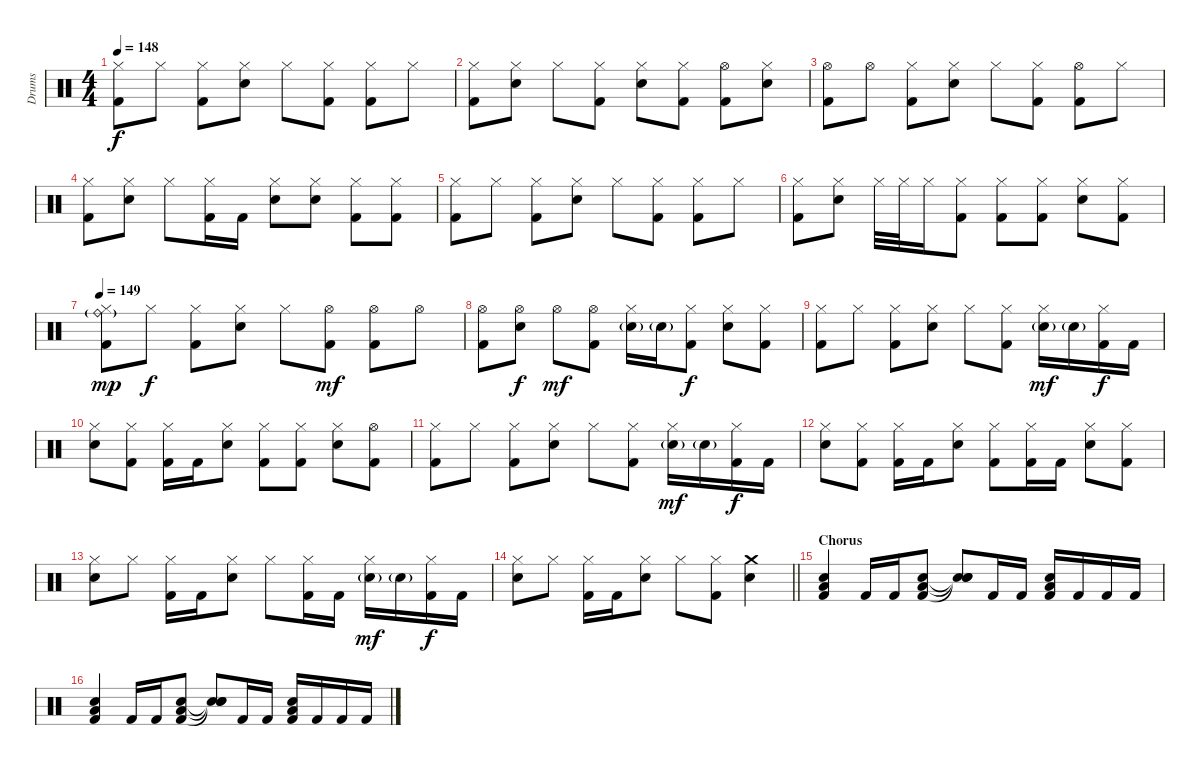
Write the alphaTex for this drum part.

\track ("Drums" "Drums") {instrument percussion}
\staff {score}
\articulation defaults
\ts (4 4)
\tempo 148
\clef neutral
\ks c
("Hi-Hat (closed)" "Kick (hit) 2").8{dy f} "Hi-Hat (closed)".8 ("Hi-Hat (closed)" "Kick (hit) 2").8 ("Hi-Hat (closed)" "Snare (hit) 2").8 "Hi-Hat (closed)".8 ("Hi-Hat (closed)" "Kick (hit) 2").8 ("Hi-Hat (closed)" "Kick (hit) 2").8 "Hi-Hat (closed)".8 |
("Hi-Hat (closed)" "Kick (hit) 2").8 ("Hi-Hat (closed)" "Snare (hit) 2").8 "Hi-Hat (closed)".8 ("Hi-Hat (closed)" "Kick (hit) 2").8 ("Hi-Hat (closed)" "Snare (hit) 2").8 ("Hi-Hat (closed)" "Kick (hit) 2").8 ("Hi-Hat (open)" "Kick (hit) 2").8 ("Hi-Hat (closed)" "Snare (hit) 2").8 |
("Hi-Hat (open)" "Kick (hit) 2").8 "Hi-Hat (open)".8 ("Hi-Hat (closed)" "Kick (hit) 2").8 ("Hi-Hat (closed)" "Snare (hit) 2").8 "Hi-Hat (closed)".8 ("Hi-Hat (closed)" "Kick (hit) 2").8 ("Hi-Hat (open)" "Kick (hit) 2").8 "Hi-Hat (closed)".8 |
("Hi-Hat (closed)" "Kick (hit) 2").8 ("Hi-Hat (closed)" "Snare (hit) 2").8 "Hi-Hat (closed)".8 ("Hi-Hat (closed)" "Kick (hit) 2").16 "Kick (hit) 2".16 ("Hi-Hat (closed)" "Snare (hit) 2").8 ("Hi-Hat (closed)" "Snare (hit) 2").8 ("Hi-Hat (closed)" "Kick (hit) 2").8 ("Hi-Hat (closed)" "Kick (hit) 2").8 |
("Hi-Hat (closed)" "Kick (hit) 2").8 "Hi-Hat (closed)".8 ("Hi-Hat (closed)" "Kick (hit) 2").8 ("Hi-Hat (closed)" "Snare (hit) 2").8 "Hi-Hat (closed)".8 ("Hi-Hat (closed)" "Kick (hit) 2").8 ("Hi-Hat (closed)" "Kick (hit) 2").8 "Hi-Hat (closed)".8 |
("Hi-Hat (closed)" "Kick (hit) 2").8 ("Hi-Hat (closed)" "Snare (hit) 2").8 "Hi-Hat (closed)".32 "Hi-Hat (closed)".32 "Hi-Hat (closed)".16 ("Hi-Hat (closed)" "Kick (hit) 2").8 ("Hi-Hat (closed)" "Kick (hit) 2").8 ("Hi-Hat (closed)" "Kick (hit) 2").8 ("Hi-Hat (closed)" "Snare (hit) 2").8 ("Hi-Hat (closed)" "Kick (hit) 2").8 |
\tempo 149
("Ride (bell)"{g} "Hi-Hat (closed)" "Kick (hit) 2").8{dy mp} "Hi-Hat (closed)".8{dy f} ("Hi-Hat (closed)" "Kick (hit) 2").8 ("Hi-Hat (closed)" "Snare (hit) 2").8 "Hi-Hat (closed)".8 ("Hi-Hat (open)" "Kick (hit) 2").8{dy mf} ("Hi-Hat (open)" "Kick (hit) 2").8 "Hi-Hat (open)".8 |
("Hi-Hat (open)" "Kick (hit) 2").8 ("Hi-Hat (open)" "Snare (hit) 2").8{dy f} "Hi-Hat (open)".8{dy mf} ("Hi-Hat (open)" "Kick (hit) 2").8 ("Hi-Hat (closed)" "Snare (hit) 2"{g}).16 "Snare (hit) 2"{g}.16 ("Hi-Hat (closed)" "Kick (hit) 2").8{dy f} ("Hi-Hat (closed)" "Snare (hit) 2").8 ("Hi-Hat (closed)" "Kick (hit) 2").8 |
("Hi-Hat (closed)" "Kick (hit) 2").8 "Hi-Hat (closed)".8 ("Hi-Hat (closed)" "Kick (hit) 2").8 ("Hi-Hat (closed)" "Snare (hit) 2").8 "Hi-Hat (closed)".8 ("Hi-Hat (closed)" "Kick (hit) 2").8 ("Hi-Hat (closed)" "Snare (hit) 2"{g}).16{dy mf} "Snare (hit) 2"{g}.16 ("Hi-Hat (closed)" "Kick (hit) 2").16{dy f} "Kick (hit) 2".16 |
("Hi-Hat (closed)" "Snare (hit) 2").8 ("Hi-Hat (closed)" "Kick (hit) 2").8 ("Hi-Hat (closed)" "Kick (hit) 2").16 "Kick (hit) 2".16 ("Hi-Hat (closed)" "Snare (hit) 2").8 ("Hi-Hat (closed)" "Kick (hit) 2").8 ("Hi-Hat (closed)" "Kick (hit) 2").8 ("Hi-Hat (closed)" "Snare (hit) 2").8 ("Hi-Hat (open)" "Kick (hit) 2").8 |
("Hi-Hat (closed)" "Kick (hit) 2").8 "Hi-Hat (closed)".8 ("Hi-Hat (closed)" "Kick (hit) 2").8 ("Hi-Hat (closed)" "Snare (hit) 2").8 "Hi-Hat (closed)".8 ("Hi-Hat (closed)" "Kick (hit) 2").8 ("Hi-Hat (closed)" "Snare (hit) 2"{g}).16{dy mf} "Snare (hit) 2"{g}.16 ("Hi-Hat (closed)" "Kick (hit) 2").16{dy f} "Kick (hit) 2".16 |
("Hi-Hat (closed)" "Snare (hit) 2").8 ("Hi-Hat (closed)" "Kick (hit) 2").8 ("Hi-Hat (closed)" "Kick (hit) 2").16 "Kick (hit) 2".16 ("Hi-Hat (closed)" "Snare (hit) 2").8 ("Hi-Hat (closed)" "Kick (hit) 2").8 ("Hi-Hat (closed)" "Kick (hit) 2").16 "Kick (hit) 2".16 ("Hi-Hat (closed)" "Snare (hit) 2").8 ("Hi-Hat (closed)" "Kick (hit) 2").8 |
("Hi-Hat (closed)" "Snare (hit) 2").8 "Hi-Hat (closed)".8 ("Hi-Hat (closed)" "Kick (hit) 2").16 "Kick (hit) 2".16 ("Hi-Hat (closed)" "Snare (hit) 2").8 "Hi-Hat (closed)".8 ("Hi-Hat (closed)" "Kick (hit) 2").16 "Kick (hit) 2".16 ("Hi-Hat (closed)" "Snare (hit) 2"{g}).16{dy mf} "Snare (hit) 2"{g}.16 ("Hi-Hat (closed)" "Kick (hit) 2").16{dy f} "Kick (hit) 2".16 |
\barLineRight lightlight
("Hi-Hat (closed)" "Snare (hit) 2").8 "Hi-Hat (closed)".8 ("Hi-Hat (closed)" "Kick (hit) 2").16 "Kick (hit) 2".16 ("Hi-Hat (closed)" "Snare (hit) 2").8 "Hi-Hat (closed)".8 ("Hi-Hat (closed)" "Kick (hit) 2").8 ("Crash medium (hit)" "Snare (hit) 2").4 |
\section ("" "Chorus")
("Snare (hit) 2" "Low Tom (hit)" "Kick (hit) 2").4 "Kick (hit) 2".16 "Kick (hit) 2".16 ("Snare (hit) 2" "Low Tom (hit)" "Kick (hit) 2").8 ("Snare (hit)"{t} "Snare (hit)"{t} "Snare (hit)"{t}).8 "Kick (hit) 2".16 "Kick (hit) 2".16 ("Snare (hit) 2" "Low Tom (hit)" "Kick (hit) 2").16 "Kick (hit) 2".16 "Kick (hit) 2".16 "Kick (hit) 2".16 |
("Snare (hit) 2" "Low Tom (hit)" "Kick (hit) 2").4 "Kick (hit) 2".16 "Kick (hit) 2".16 ("Snare (hit) 2" "Low Tom (hit)" "Kick (hit) 2").8 ("Snare (hit)"{t} "Snare (hit)"{t} "Snare (hit)"{t}).8 "Kick (hit) 2".16 "Kick (hit) 2".16 ("Snare (hit) 2" "Low Tom (hit)" "Kick (hit) 2").16 "Kick (hit) 2".16 "Kick (hit) 2".16 "Kick (hit) 2".16
